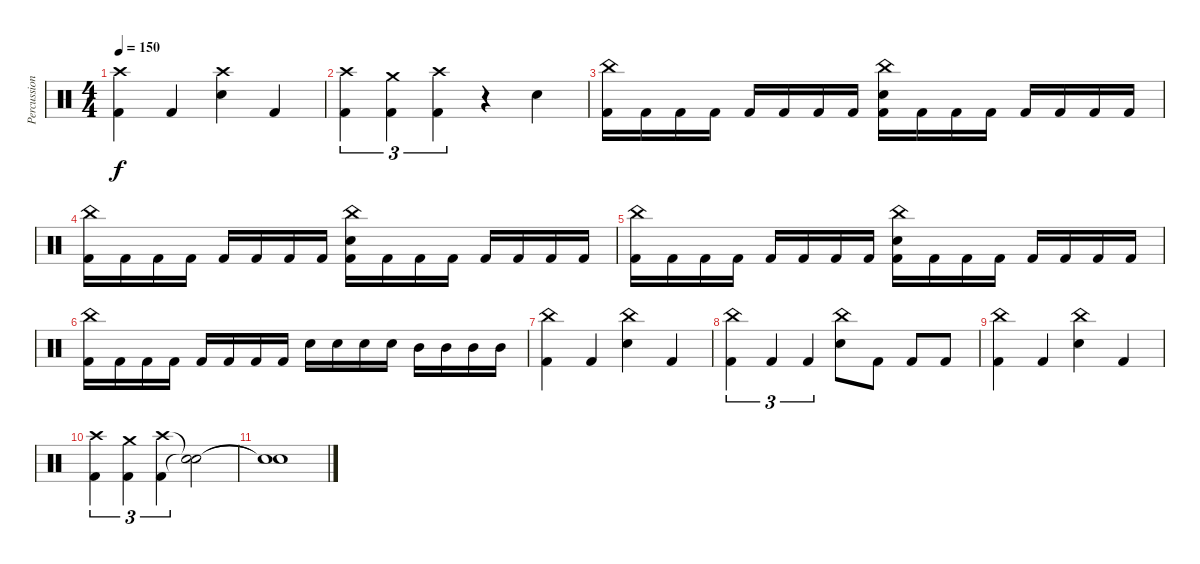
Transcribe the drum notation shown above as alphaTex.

\track ("Percussion" "Percussion") {instrument percussion}
\staff {score}
\articulation defaults
\ts (4 4)
\tempo 150
\clef neutral
\ks c
("Crash high (hit)" "Kick (hit) 2").4{dy f} "Kick (hit) 2".4 ("Crash high (hit)" "Electric Snare (hit)").4 "Kick (hit) 2".4 |
("Crash high (hit)" "Kick (hit) 2").4{tu (3 2)} ("Crash medium (hit)" "Kick (hit) 2").4{tu (3 2)} ("Crash high (hit)" "Kick (hit) 2").4{tu (3 2)} r.4 "Electric Snare (hit)".4 |
("China (hit)" "Kick (hit) 2").16 "Kick (hit) 2".16 "Kick (hit) 2".16 "Kick (hit) 2".16 "Kick (hit) 2".16 "Kick (hit) 2".16 "Kick (hit) 2".16 "Kick (hit) 2".16 ("China (hit)" "Electric Snare (hit)" "Kick (hit) 2").16 "Kick (hit) 2".16 "Kick (hit) 2".16 "Kick (hit) 2".16 "Kick (hit) 2".16 "Kick (hit) 2".16 "Kick (hit) 2".16 "Kick (hit) 2".16 |
("China (hit)" "Kick (hit) 2").16 "Kick (hit) 2".16 "Kick (hit) 2".16 "Kick (hit) 2".16 "Kick (hit) 2".16 "Kick (hit) 2".16 "Kick (hit) 2".16 "Kick (hit) 2".16 ("China (hit)" "Electric Snare (hit)" "Kick (hit) 2").16 "Kick (hit) 2".16 "Kick (hit) 2".16 "Kick (hit) 2".16 "Kick (hit) 2".16 "Kick (hit) 2".16 "Kick (hit) 2".16 "Kick (hit) 2".16 |
("China (hit)" "Kick (hit) 2").16 "Kick (hit) 2".16 "Kick (hit) 2".16 "Kick (hit) 2".16 "Kick (hit) 2".16 "Kick (hit) 2".16 "Kick (hit) 2".16 "Kick (hit) 2".16 ("China (hit)" "Electric Snare (hit)" "Kick (hit) 2").16 "Kick (hit) 2".16 "Kick (hit) 2".16 "Kick (hit) 2".16 "Kick (hit) 2".16 "Kick (hit) 2".16 "Kick (hit) 2".16 "Kick (hit) 2".16 |
("China (hit)" "Kick (hit) 2").16 "Kick (hit) 2".16 "Kick (hit) 2".16 "Kick (hit) 2".16 "Kick (hit) 2".16 "Kick (hit) 2".16 "Kick (hit) 2".16 "Kick (hit) 2".16 "Electric Snare (hit)".16 "Electric Snare (hit)".16 "Electric Snare (hit)".16 "Electric Snare (hit)".16 "Mid Tom (hit)".16 "Mid Tom (hit)".16 "Mid Tom (hit)".16 "Mid Tom (hit)".16 |
("China (hit)" "Kick (hit) 2").4 "Kick (hit) 2".4 ("China (hit)" "Electric Snare (hit)").4 "Kick (hit) 2".4 |
("China (hit)" "Kick (hit) 2").4{tu (3 2)} "Kick (hit) 2".4{tu (3 2)} "Kick (hit) 2".4{tu (3 2)} ("China (hit)" "Electric Snare (hit)").8 "Kick (hit) 2".8 "Kick (hit) 2".8 "Kick (hit) 2".8 |
("China (hit)" "Kick (hit) 2").4 "Kick (hit) 2".4 ("China (hit)" "Electric Snare (hit)").4 "Kick (hit) 2".4 |
("Crash high (hit)" "Kick (hit) 2").4{tu (3 2)} ("Crash medium (hit)" "Kick (hit) 2").4{tu (3 2)} ("Crash high (hit)" "Kick (hit) 2").4{tu (3 2)} ("Snare (hit)"{t} "Snare (hit)"{t}).2 |
("Snare (hit)"{t} "Snare (hit)"{t}).1
